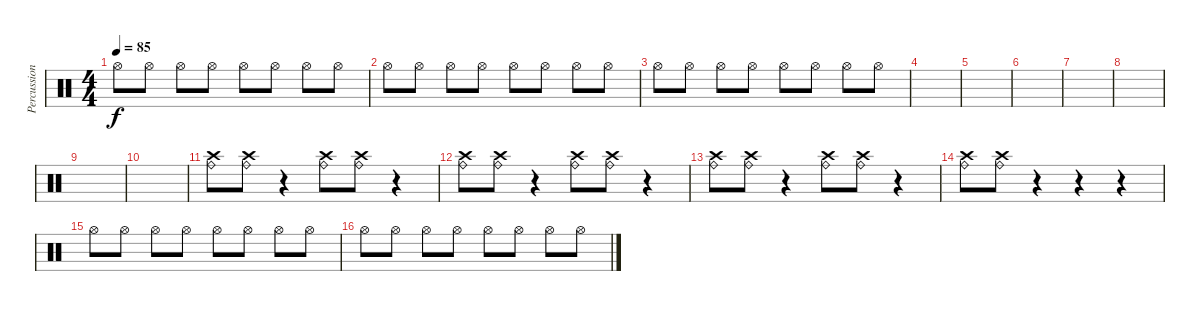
\track ("Percussion" "Percussion") {instrument percussion}
\staff {score}
\articulation defaults
\ts (4 4)
\tempo 85
\clef neutral
\ks c "Hi-Hat (open)".8{dy f} "Hi-Hat (open)".8 "Hi-Hat (open)".8 "Hi-Hat (open)".8 "Hi-Hat (open)".8 "Hi-Hat (open)".8 "Hi-Hat (open)".8 "Hi-Hat (open)".8
|
"Hi-Hat (open)".8 "Hi-Hat (open)".8 "Hi-Hat (open)".8 "Hi-Hat (open)".8 "Hi-Hat (open)".8 "Hi-Hat (open)".8 "Hi-Hat (open)".8 "Hi-Hat (open)".8 |
"Hi-Hat (open)".8 "Hi-Hat (open)".8 "Hi-Hat (open)".8 "Hi-Hat (open)".8 "Hi-Hat (open)".8 "Hi-Hat (open)".8 "Hi-Hat (open)".8 "Hi-Hat (open)".8 |
|
|
|
|
|
|
|
("Ride (bell)" "Crash high (hit)").8{volume 3 balance 12} ("Ride (bell)" "Crash high (hit)").8{balance 12} r.4 ("Ride (bell)" "Crash high (hit)").8{balance 4} ("Ride (bell)" "Crash high (hit)").8{balance 4} r.4 |
("Ride (bell)" "Crash high (hit)").8{balance 8} ("Ride (bell)" "Crash high (hit)").8{balance 8} r.4 ("Ride (bell)" "Crash high (hit)").8{balance 4} ("Ride (bell)" "Crash high (hit)").8{balance 4} r.4 |
("Ride (bell)" "Crash high (hit)").8{balance 12} ("Ride (bell)" "Crash high (hit)").8{balance 12} r.4 ("Ride (bell)" "Crash high (hit)").8{balance 8} ("Ride (bell)" "Crash high (hit)").8{balance 8} r.4 |
("Ride (bell)" "Crash high (hit)").8{balance 4} ("Ride (bell)" "Crash high (hit)").8{balance 4} r.4 r.4 r.4 |
"Hi-Hat (open)".8{volume 3 balance 12} "Hi-Hat (open)".8 "Hi-Hat (open)".8 "Hi-Hat (open)".8 "Hi-Hat (open)".8 "Hi-Hat (open)".8 "Hi-Hat (open)".8 "Hi-Hat (open)".8 |
"Hi-Hat (open)".8 "Hi-Hat (open)".8 "Hi-Hat (open)".8 "Hi-Hat (open)".8 "Hi-Hat (open)".8 "Hi-Hat (open)".8 "Hi-Hat (open)".8 "Hi-Hat (open)".8
